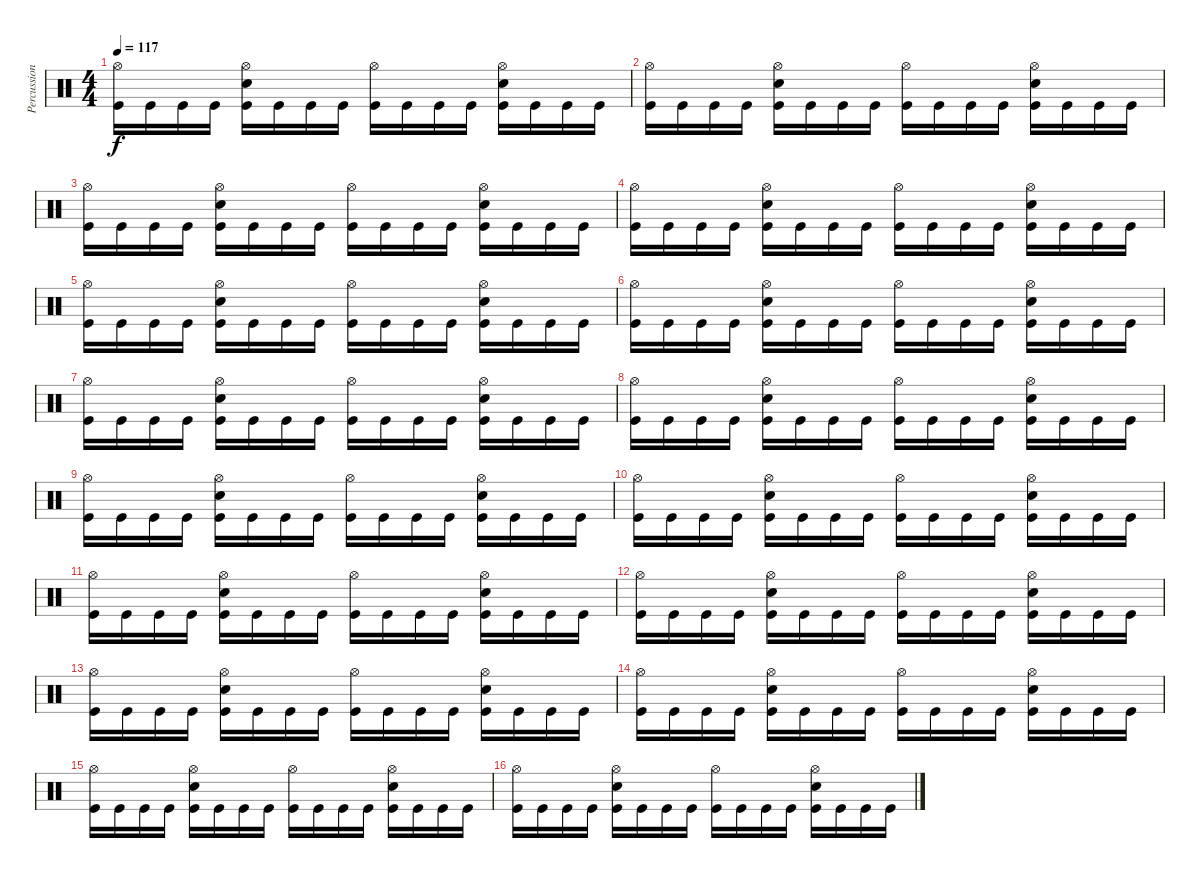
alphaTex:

\track ("Percussion" "Percussion") {instrument percussion}
\staff {score}
\articulation defaults
\ts (4 4)
\tempo 117
\clef neutral
\ks c
("Hi-Hat (open)" "Kick (hit)").16{dy f} "Kick (hit)".16 "Kick (hit)".16 "Kick (hit)".16 ("Hi-Hat (open)" "Electric Snare (hit)" "Kick (hit)").16 "Kick (hit)".16 "Kick (hit)".16 "Kick (hit)".16 ("Hi-Hat (open)" "Kick (hit)").16 "Kick (hit)".16 "Kick (hit)".16 "Kick (hit)".16 ("Hi-Hat (open)" "Electric Snare (hit)" "Kick (hit)").16 "Kick (hit)".16 "Kick (hit)".16 "Kick (hit)".16 |
("Hi-Hat (open)" "Kick (hit)").16 "Kick (hit)".16 "Kick (hit)".16 "Kick (hit)".16 ("Hi-Hat (open)" "Electric Snare (hit)" "Kick (hit)").16 "Kick (hit)".16 "Kick (hit)".16 "Kick (hit)".16 ("Hi-Hat (open)" "Kick (hit)").16 "Kick (hit)".16 "Kick (hit)".16 "Kick (hit)".16 ("Hi-Hat (open)" "Electric Snare (hit)" "Kick (hit)").16 "Kick (hit)".16 "Kick (hit)".16 "Kick (hit)".16 |
("Hi-Hat (open)" "Kick (hit)").16 "Kick (hit)".16 "Kick (hit)".16 "Kick (hit)".16 ("Hi-Hat (open)" "Electric Snare (hit)" "Kick (hit)").16 "Kick (hit)".16 "Kick (hit)".16 "Kick (hit)".16 ("Hi-Hat (open)" "Kick (hit)").16 "Kick (hit)".16 "Kick (hit)".16 "Kick (hit)".16 ("Hi-Hat (open)" "Electric Snare (hit)" "Kick (hit)").16 "Kick (hit)".16 "Kick (hit)".16 "Kick (hit)".16 |
("Hi-Hat (open)" "Kick (hit)").16 "Kick (hit)".16 "Kick (hit)".16 "Kick (hit)".16 ("Hi-Hat (open)" "Electric Snare (hit)" "Kick (hit)").16 "Kick (hit)".16 "Kick (hit)".16 "Kick (hit)".16 ("Hi-Hat (open)" "Kick (hit)").16 "Kick (hit)".16 "Kick (hit)".16 "Kick (hit)".16 ("Hi-Hat (open)" "Electric Snare (hit)" "Kick (hit)").16 "Kick (hit)".16 "Kick (hit)".16 "Kick (hit)".16 |
("Hi-Hat (open)" "Kick (hit)").16 "Kick (hit)".16 "Kick (hit)".16 "Kick (hit)".16 ("Hi-Hat (open)" "Electric Snare (hit)" "Kick (hit)").16 "Kick (hit)".16 "Kick (hit)".16 "Kick (hit)".16 ("Hi-Hat (open)" "Kick (hit)").16 "Kick (hit)".16 "Kick (hit)".16 "Kick (hit)".16 ("Hi-Hat (open)" "Electric Snare (hit)" "Kick (hit)").16 "Kick (hit)".16 "Kick (hit)".16 "Kick (hit)".16 |
("Hi-Hat (open)" "Kick (hit)").16 "Kick (hit)".16 "Kick (hit)".16 "Kick (hit)".16 ("Hi-Hat (open)" "Electric Snare (hit)" "Kick (hit)").16 "Kick (hit)".16 "Kick (hit)".16 "Kick (hit)".16 ("Hi-Hat (open)" "Kick (hit)").16 "Kick (hit)".16 "Kick (hit)".16 "Kick (hit)".16 ("Hi-Hat (open)" "Electric Snare (hit)" "Kick (hit)").16 "Kick (hit)".16 "Kick (hit)".16 "Kick (hit)".16 |
("Hi-Hat (open)" "Kick (hit)").16 "Kick (hit)".16 "Kick (hit)".16 "Kick (hit)".16 ("Hi-Hat (open)" "Electric Snare (hit)" "Kick (hit)").16 "Kick (hit)".16 "Kick (hit)".16 "Kick (hit)".16 ("Hi-Hat (open)" "Kick (hit)").16 "Kick (hit)".16 "Kick (hit)".16 "Kick (hit)".16 ("Hi-Hat (open)" "Electric Snare (hit)" "Kick (hit)").16 "Kick (hit)".16 "Kick (hit)".16 "Kick (hit)".16 |
("Hi-Hat (open)" "Kick (hit)").16 "Kick (hit)".16 "Kick (hit)".16 "Kick (hit)".16 ("Hi-Hat (open)" "Electric Snare (hit)" "Kick (hit)").16 "Kick (hit)".16 "Kick (hit)".16 "Kick (hit)".16 ("Hi-Hat (open)" "Kick (hit)").16 "Kick (hit)".16 "Kick (hit)".16 "Kick (hit)".16 ("Hi-Hat (open)" "Electric Snare (hit)" "Kick (hit)").16 "Kick (hit)".16 "Kick (hit)".16 "Kick (hit)".16 |
("Hi-Hat (open)" "Kick (hit)").16 "Kick (hit)".16 "Kick (hit)".16 "Kick (hit)".16 ("Hi-Hat (open)" "Electric Snare (hit)" "Kick (hit)").16 "Kick (hit)".16 "Kick (hit)".16 "Kick (hit)".16 ("Hi-Hat (open)" "Kick (hit)").16 "Kick (hit)".16 "Kick (hit)".16 "Kick (hit)".16 ("Hi-Hat (open)" "Electric Snare (hit)" "Kick (hit)").16 "Kick (hit)".16 "Kick (hit)".16 "Kick (hit)".16 |
("Hi-Hat (open)" "Kick (hit)").16 "Kick (hit)".16 "Kick (hit)".16 "Kick (hit)".16 ("Hi-Hat (open)" "Electric Snare (hit)" "Kick (hit)").16 "Kick (hit)".16 "Kick (hit)".16 "Kick (hit)".16 ("Hi-Hat (open)" "Kick (hit)").16 "Kick (hit)".16 "Kick (hit)".16 "Kick (hit)".16 ("Hi-Hat (open)" "Electric Snare (hit)" "Kick (hit)").16 "Kick (hit)".16 "Kick (hit)".16 "Kick (hit)".16 |
("Hi-Hat (open)" "Kick (hit)").16 "Kick (hit)".16 "Kick (hit)".16 "Kick (hit)".16 ("Hi-Hat (open)" "Electric Snare (hit)" "Kick (hit)").16 "Kick (hit)".16 "Kick (hit)".16 "Kick (hit)".16 ("Hi-Hat (open)" "Kick (hit)").16 "Kick (hit)".16 "Kick (hit)".16 "Kick (hit)".16 ("Hi-Hat (open)" "Electric Snare (hit)" "Kick (hit)").16 "Kick (hit)".16 "Kick (hit)".16 "Kick (hit)".16 |
("Hi-Hat (open)" "Kick (hit)").16 "Kick (hit)".16 "Kick (hit)".16 "Kick (hit)".16 ("Hi-Hat (open)" "Electric Snare (hit)" "Kick (hit)").16 "Kick (hit)".16 "Kick (hit)".16 "Kick (hit)".16 ("Hi-Hat (open)" "Kick (hit)").16 "Kick (hit)".16 "Kick (hit)".16 "Kick (hit)".16 ("Hi-Hat (open)" "Electric Snare (hit)" "Kick (hit)").16 "Kick (hit)".16 "Kick (hit)".16 "Kick (hit)".16 |
("Hi-Hat (open)" "Kick (hit)").16 "Kick (hit)".16 "Kick (hit)".16 "Kick (hit)".16 ("Hi-Hat (open)" "Electric Snare (hit)" "Kick (hit)").16 "Kick (hit)".16 "Kick (hit)".16 "Kick (hit)".16 ("Hi-Hat (open)" "Kick (hit)").16 "Kick (hit)".16 "Kick (hit)".16 "Kick (hit)".16 ("Hi-Hat (open)" "Electric Snare (hit)" "Kick (hit)").16 "Kick (hit)".16 "Kick (hit)".16 "Kick (hit)".16 |
("Hi-Hat (open)" "Kick (hit)").16 "Kick (hit)".16 "Kick (hit)".16 "Kick (hit)".16 ("Hi-Hat (open)" "Electric Snare (hit)" "Kick (hit)").16 "Kick (hit)".16 "Kick (hit)".16 "Kick (hit)".16 ("Hi-Hat (open)" "Kick (hit)").16 "Kick (hit)".16 "Kick (hit)".16 "Kick (hit)".16 ("Hi-Hat (open)" "Electric Snare (hit)" "Kick (hit)").16 "Kick (hit)".16 "Kick (hit)".16 "Kick (hit)".16 |
("Hi-Hat (open)" "Kick (hit)").16 "Kick (hit)".16 "Kick (hit)".16 "Kick (hit)".16 ("Hi-Hat (open)" "Electric Snare (hit)" "Kick (hit)").16 "Kick (hit)".16 "Kick (hit)".16 "Kick (hit)".16 ("Hi-Hat (open)" "Kick (hit)").16 "Kick (hit)".16 "Kick (hit)".16 "Kick (hit)".16 ("Hi-Hat (open)" "Electric Snare (hit)" "Kick (hit)").16 "Kick (hit)".16 "Kick (hit)".16 "Kick (hit)".16 |
("Hi-Hat (open)" "Kick (hit)").16 "Kick (hit)".16 "Kick (hit)".16 "Kick (hit)".16 ("Hi-Hat (open)" "Electric Snare (hit)" "Kick (hit)").16 "Kick (hit)".16 "Kick (hit)".16 "Kick (hit)".16 ("Hi-Hat (open)" "Kick (hit)").16 "Kick (hit)".16 "Kick (hit)".16 "Kick (hit)".16 ("Hi-Hat (open)" "Electric Snare (hit)" "Kick (hit)").16 "Kick (hit)".16 "Kick (hit)".16 "Kick (hit)".16
